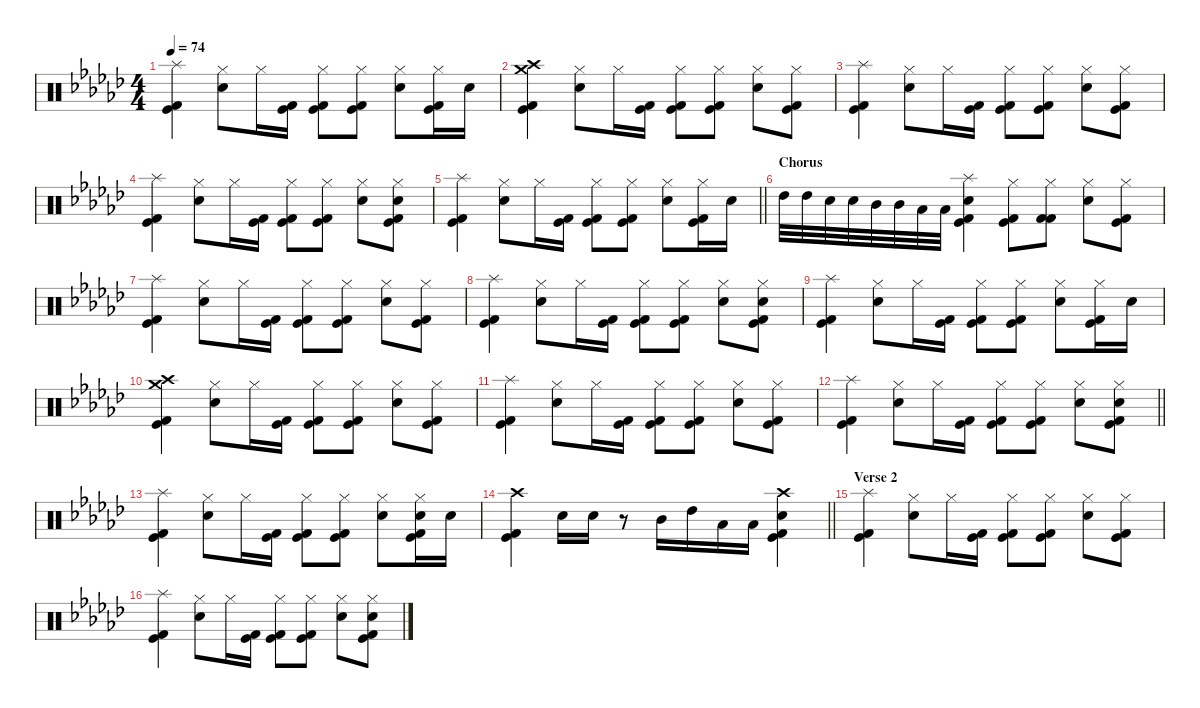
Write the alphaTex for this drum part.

\defaultSystemsLayout 4
\hideDynamics
\bracketExtendMode nobrackets
\singleTrackTrackNamePolicy hidden
\multiTrackTrackNamePolicy hidden
\firstSystemTrackNameMode fullname
\firstSystemTrackNameOrientation horizontal
\otherSystemsTrackNameOrientation horizontal
\track ("Drums, Ulrich" "drm.") {defaultSystemsLayout 4 instrument percussion}
\staff {score}
\articulation defaults
\ts (4 4)
\tempo 74
\clef neutral
\ks ebminor
("Splash (hit)"{acc forcenatural} "Kick (hit) 2"{acc forcenatural} "Kick (hit)"{acc forcenatural}).4{dy f beam Down} ("Hi-Hat (closed)"{acc forcenatural} "Snare (hit) 2"{acc forcenatural}).8{beam Down} "Hi-Hat (closed)"{acc forcenatural}.16{beam Down} ("Kick (hit) 2"{acc forcenatural} "Kick (hit)"{acc forcenatural}).16{beam Down} ("Hi-Hat (closed)"{acc forcenatural} "Kick (hit) 2"{acc forcenatural} "Kick (hit)"{acc forcenatural}).8{beam Down} ("Hi-Hat (closed)"{acc forcenatural} "Kick (hit)"{acc forcenatural} "Kick (hit) 2"{acc forcenatural}).8{beam Down} ("Hi-Hat (closed)"{acc forcenatural} "Snare (hit) 2"{acc forcenatural}).8{beam Down} ("Hi-Hat (closed)"{acc forcenatural} "Kick (hit) 2"{acc forcenatural} "Kick (hit)"{acc forcenatural}).16{beam Down} "Snare (hit) 2"{acc forcenatural}.16{beam Down} |
("Crash medium (hit)"{acc forcenatural} "Crash high (hit)"{acc forcenatural} "Kick (hit) 2"{acc forcenatural} "Kick (hit)"{acc forcenatural}).4{beam Down} ("Hi-Hat (closed)"{acc forcenatural} "Snare (hit) 2"{acc forcenatural}).8{beam Down} "Hi-Hat (closed)"{acc forcenatural}.16{beam Down} ("Kick (hit) 2"{acc forcenatural} "Kick (hit)"{acc forcenatural}).16{beam Down} ("Hi-Hat (closed)"{acc forcenatural} "Kick (hit) 2"{acc forcenatural} "Kick (hit)"{acc forcenatural}).8{beam Down} ("Hi-Hat (closed)"{acc forcenatural} "Kick (hit)"{acc forcenatural} "Kick (hit) 2"{acc forcenatural}).8{beam Down} ("Hi-Hat (closed)"{acc forcenatural} "Snare (hit) 2"{acc forcenatural}).8{beam Down} ("Hi-Hat (closed)"{acc forcenatural} "Kick (hit) 2"{acc forcenatural} "Kick (hit)"{acc forcenatural}).8{beam Down} |
("Splash (hit)"{acc forcenatural} "Kick (hit) 2"{acc forcenatural} "Kick (hit)"{acc forcenatural}).4{beam Down} ("Hi-Hat (closed)"{acc forcenatural} "Snare (hit) 2"{acc forcenatural}).8{beam Down} "Hi-Hat (closed)"{acc forcenatural}.16{beam Down} ("Kick (hit) 2"{acc forcenatural} "Kick (hit)"{acc forcenatural}).16{beam Down} ("Hi-Hat (closed)"{acc forcenatural} "Kick (hit) 2"{acc forcenatural} "Kick (hit)"{acc forcenatural}).8{beam Down} ("Hi-Hat (closed)"{acc forcenatural} "Kick (hit)"{acc forcenatural} "Kick (hit) 2"{acc forcenatural}).8{beam Down} ("Hi-Hat (closed)"{acc forcenatural} "Snare (hit) 2"{acc forcenatural}).8{beam Down} ("Hi-Hat (closed)"{acc forcenatural} "Kick (hit) 2"{acc forcenatural} "Kick (hit)"{acc forcenatural}).8{beam Down} |
("Splash (hit)"{acc forcenatural} "Kick (hit) 2"{acc forcenatural} "Kick (hit)"{acc forcenatural}).4{beam Down} ("Hi-Hat (closed)"{acc forcenatural} "Snare (hit) 2"{acc forcenatural}).8{beam Down} "Hi-Hat (closed)"{acc forcenatural}.16{beam Down} ("Kick (hit) 2"{acc forcenatural} "Kick (hit)"{acc forcenatural}).16{beam Down} ("Hi-Hat (closed)"{acc forcenatural} "Kick (hit) 2"{acc forcenatural} "Kick (hit)"{acc forcenatural}).8{beam Down} ("Hi-Hat (closed)"{acc forcenatural} "Kick (hit)"{acc forcenatural} "Kick (hit) 2"{acc forcenatural}).8{beam Down} ("Hi-Hat (closed)"{acc forcenatural} "Snare (hit) 2"{acc forcenatural}).8{beam Down} ("Hi-Hat (closed)"{acc forcenatural} "Snare (hit) 2"{acc forcenatural} "Kick (hit) 2"{acc forcenatural} "Kick (hit)"{acc forcenatural}).8{beam Down} |
\barLineRight lightlight
("Splash (hit)"{acc forcenatural} "Kick (hit) 2"{acc forcenatural} "Kick (hit)"{acc forcenatural}).4{beam Down} ("Hi-Hat (closed)"{acc forcenatural} "Snare (hit) 2"{acc forcenatural}).8{beam Down} "Hi-Hat (closed)"{acc forcenatural}.16{beam Down} ("Kick (hit) 2"{acc forcenatural} "Kick (hit)"{acc forcenatural}).16{beam Down} ("Hi-Hat (closed)"{acc forcenatural} "Kick (hit) 2"{acc forcenatural} "Kick (hit)"{acc forcenatural}).8{beam Down} ("Hi-Hat (closed)"{acc forcenatural} "Kick (hit)"{acc forcenatural} "Kick (hit) 2"{acc forcenatural}).8{beam Down} ("Hi-Hat (closed)"{acc forcenatural} "Snare (hit) 2"{acc forcenatural}).8{beam Down} ("Hi-Hat (closed)"{acc forcenatural} "Kick (hit) 2"{acc forcenatural} "Kick (hit)"{acc forcenatural}).16{beam Down} "Snare (hit) 2"{acc forcenatural}.16{beam Down} |
\section ("" "Chorus")
"High Tom (hit)"{acc forcenatural}.32{beam Down} "High Tom (hit)"{acc forcenatural}.32{beam Down} "Snare (hit) 2"{acc forcenatural}.32{beam Down} "Snare (hit) 2"{acc forcenatural}.32{beam Down} "Mid Tom (hit)"{acc forcenatural}.32{beam Down} "Mid Tom (hit)"{acc forcenatural}.32{beam Down} "Low Floor Tom (hit)"{acc forcenatural}.32{beam Down} "Low Floor Tom (hit)"{acc forcenatural}.32{beam Down} ("Splash (hit)"{acc forcenatural} "Snare (hit) 2"{acc forcenatural} "Kick (hit) 2"{acc forcenatural} "Kick (hit)"{acc forcenatural}).4{beam Down} ("Hi-Hat (closed)"{acc forcenatural} "Kick (hit) 2"{acc forcenatural} "Kick (hit)"{acc forcenatural}).8{beam Down} ("Hi-Hat (closed)"{acc forcenatural} "Kick (hit) 2"{acc forcenatural} "Kick (hit) 2"{acc forcenatural}).8{beam Down} ("Hi-Hat (closed)"{acc forcenatural} "Snare (hit) 2"{acc forcenatural}).8{beam Down} ("Hi-Hat (closed)"{acc forcenatural} "Kick (hit) 2"{acc forcenatural} "Kick (hit)"{acc forcenatural}).8{beam Down} |
("Splash (hit)"{acc forcenatural} "Kick (hit) 2"{acc forcenatural} "Kick (hit)"{acc forcenatural}).4{beam Down} ("Hi-Hat (closed)"{acc forcenatural} "Snare (hit) 2"{acc forcenatural}).8{beam Down} "Hi-Hat (closed)"{acc forcenatural}.16{beam Down} ("Kick (hit) 2"{acc forcenatural} "Kick (hit)"{acc forcenatural}).16{beam Down} ("Hi-Hat (closed)"{acc forcenatural} "Kick (hit) 2"{acc forcenatural} "Kick (hit)"{acc forcenatural}).8{beam Down} ("Hi-Hat (closed)"{acc forcenatural} "Kick (hit)"{acc forcenatural} "Kick (hit) 2"{acc forcenatural}).8{beam Down} ("Hi-Hat (closed)"{acc forcenatural} "Snare (hit) 2"{acc forcenatural}).8{beam Down} ("Hi-Hat (closed)"{acc forcenatural} "Kick (hit) 2"{acc forcenatural} "Kick (hit)"{acc forcenatural}).8{beam Down} |
("Splash (hit)"{acc forcenatural} "Kick (hit) 2"{acc forcenatural} "Kick (hit)"{acc forcenatural}).4{beam Down} ("Hi-Hat (closed)"{acc forcenatural} "Snare (hit) 2"{acc forcenatural}).8{beam Down} "Hi-Hat (closed)"{acc forcenatural}.16{beam Down} ("Kick (hit) 2"{acc forcenatural} "Kick (hit)"{acc forcenatural}).16{beam Down} ("Hi-Hat (closed)"{acc forcenatural} "Kick (hit) 2"{acc forcenatural} "Kick (hit)"{acc forcenatural}).8{beam Down} ("Hi-Hat (closed)"{acc forcenatural} "Kick (hit)"{acc forcenatural} "Kick (hit) 2"{acc forcenatural}).8{beam Down} ("Hi-Hat (closed)"{acc forcenatural} "Snare (hit) 2"{acc forcenatural}).8{beam Down} ("Hi-Hat (closed)"{acc forcenatural} "Snare (hit) 2"{acc forcenatural} "Kick (hit) 2"{acc forcenatural} "Kick (hit)"{acc forcenatural}).8{beam Down} |
("Splash (hit)"{acc forcenatural} "Kick (hit) 2"{acc forcenatural} "Kick (hit)"{acc forcenatural}).4{beam Down} ("Hi-Hat (closed)"{acc forcenatural} "Snare (hit) 2"{acc forcenatural}).8{beam Down} "Hi-Hat (closed)"{acc forcenatural}.16{beam Down} ("Kick (hit) 2"{acc forcenatural} "Kick (hit)"{acc forcenatural}).16{beam Down} ("Hi-Hat (closed)"{acc forcenatural} "Kick (hit) 2"{acc forcenatural} "Kick (hit)"{acc forcenatural}).8{beam Down} ("Hi-Hat (closed)"{acc forcenatural} "Kick (hit)"{acc forcenatural} "Kick (hit) 2"{acc forcenatural}).8{beam Down} ("Hi-Hat (closed)"{acc forcenatural} "Snare (hit) 2"{acc forcenatural}).8{beam Down} ("Hi-Hat (closed)"{acc forcenatural} "Kick (hit) 2"{acc forcenatural} "Kick (hit)"{acc forcenatural}).16{beam Down} "Snare (hit) 2"{acc forcenatural}.16{beam Down} |
("Crash medium (hit)"{acc forcenatural} "Crash high (hit)"{acc forcenatural} "Kick (hit) 2"{acc forcenatural} "Kick (hit)"{acc forcenatural}).4{beam Down} ("Hi-Hat (closed)"{acc forcenatural} "Snare (hit) 2"{acc forcenatural}).8{beam Down} "Hi-Hat (closed)"{acc forcenatural}.16{beam Down} ("Kick (hit) 2"{acc forcenatural} "Kick (hit)"{acc forcenatural}).16{beam Down} ("Hi-Hat (closed)"{acc forcenatural} "Kick (hit) 2"{acc forcenatural} "Kick (hit)"{acc forcenatural}).8{beam Down} ("Hi-Hat (closed)"{acc forcenatural} "Kick (hit)"{acc forcenatural} "Kick (hit) 2"{acc forcenatural}).8{beam Down} ("Hi-Hat (closed)"{acc forcenatural} "Snare (hit) 2"{acc forcenatural}).8{beam Down} ("Hi-Hat (closed)"{acc forcenatural} "Kick (hit) 2"{acc forcenatural} "Kick (hit)"{acc forcenatural}).8{beam Down} |
("Splash (hit)"{acc forcenatural} "Kick (hit) 2"{acc forcenatural} "Kick (hit)"{acc forcenatural}).4{beam Down} ("Hi-Hat (closed)"{acc forcenatural} "Snare (hit) 2"{acc forcenatural}).8{beam Down} "Hi-Hat (closed)"{acc forcenatural}.16{beam Down} ("Kick (hit) 2"{acc forcenatural} "Kick (hit)"{acc forcenatural}).16{beam Down} ("Hi-Hat (closed)"{acc forcenatural} "Kick (hit) 2"{acc forcenatural} "Kick (hit)"{acc forcenatural}).8{beam Down} ("Hi-Hat (closed)"{acc forcenatural} "Kick (hit)"{acc forcenatural} "Kick (hit) 2"{acc forcenatural}).8{beam Down} ("Hi-Hat (closed)"{acc forcenatural} "Snare (hit) 2"{acc forcenatural}).8{beam Down} ("Hi-Hat (closed)"{acc forcenatural} "Kick (hit) 2"{acc forcenatural} "Kick (hit)"{acc forcenatural}).8{beam Down} |
\barLineRight lightlight
("Splash (hit)"{acc forcenatural} "Kick (hit) 2"{acc forcenatural} "Kick (hit)"{acc forcenatural}).4{beam Down} ("Hi-Hat (closed)"{acc forcenatural} "Snare (hit) 2"{acc forcenatural}).8{beam Down} "Hi-Hat (closed)"{acc forcenatural}.16{beam Down} ("Kick (hit) 2"{acc forcenatural} "Kick (hit)"{acc forcenatural}).16{beam Down} ("Hi-Hat (closed)"{acc forcenatural} "Kick (hit) 2"{acc forcenatural} "Kick (hit)"{acc forcenatural}).8{beam Down} ("Hi-Hat (closed)"{acc forcenatural} "Kick (hit)"{acc forcenatural} "Kick (hit) 2"{acc forcenatural}).8{beam Down} ("Hi-Hat (closed)"{acc forcenatural} "Snare (hit) 2"{acc forcenatural}).8{beam Down} ("Hi-Hat (closed)"{acc forcenatural} "Snare (hit) 2"{acc forcenatural} "Kick (hit) 2"{acc forcenatural} "Kick (hit)"{acc forcenatural}).8{beam Down} |
("Splash (hit)"{acc forcenatural} "Kick (hit) 2"{acc forcenatural} "Kick (hit)"{acc forcenatural}).4{beam Down} ("Hi-Hat (closed)"{acc forcenatural} "Snare (hit) 2"{acc forcenatural}).8{beam Down} "Hi-Hat (closed)"{acc forcenatural}.16{beam Down} ("Kick (hit) 2"{acc forcenatural} "Kick (hit)"{acc forcenatural}).16{beam Down} ("Hi-Hat (closed)"{acc forcenatural} "Kick (hit) 2"{acc forcenatural} "Kick (hit)"{acc forcenatural}).8{beam Down} ("Hi-Hat (closed)"{acc forcenatural} "Kick (hit)"{acc forcenatural} "Kick (hit) 2"{acc forcenatural}).8{beam Down} ("Hi-Hat (closed)"{acc forcenatural} "Snare (hit) 2"{acc forcenatural}).8{beam Down} ("Hi-Hat (closed)"{acc forcenatural} "Snare (hit) 2"{acc forcenatural} "Kick (hit) 2"{acc forcenatural} "Kick (hit)"{acc forcenatural}).16{beam Down} "Snare (hit) 2"{acc forcenatural}.16{beam Down} |
\barLineRight lightlight
("Crash high (hit)"{acc forcenatural} "Kick (hit) 2"{acc forcenatural} "Kick (hit)"{acc forcenatural}).4{beam Down} "Snare (hit) 2"{acc forcenatural}.16{beam Down} "Snare (hit) 2"{acc forcenatural}.16{beam Down} r.8{beam Down} "Mid Tom (hit)"{acc forcenatural}.16{beam Down} "High Tom (hit)"{acc forcenatural}.16{beam Down} "Low Floor Tom (hit)"{acc forcenatural}.16{beam Down} "Low Floor Tom (hit)"{acc forcenatural}.16{beam Down} ("Crash high (hit)"{acc forcenatural} "Kick (hit) 2"{acc forcenatural} "Kick (hit)"{acc forcenatural} "Snare (hit) 2"{acc forcenatural}).4{beam Down} |
\section ("" "Verse 2")
("Splash (hit)"{acc forcenatural} "Kick (hit) 2"{acc forcenatural} "Kick (hit)"{acc forcenatural}).4{beam Down} ("Hi-Hat (closed)"{acc forcenatural} "Snare (hit) 2"{acc forcenatural}).8{beam Down} "Hi-Hat (closed)"{acc forcenatural}.16{beam Down} ("Kick (hit) 2"{acc forcenatural} "Kick (hit)"{acc forcenatural}).16{beam Down} ("Hi-Hat (closed)"{acc forcenatural} "Kick (hit) 2"{acc forcenatural} "Kick (hit)"{acc forcenatural}).8{beam Down} ("Hi-Hat (closed)"{acc forcenatural} "Kick (hit)"{acc forcenatural} "Kick (hit) 2"{acc forcenatural}).8{beam Down} ("Hi-Hat (closed)"{acc forcenatural} "Snare (hit) 2"{acc forcenatural}).8{beam Down} ("Hi-Hat (closed)"{acc forcenatural} "Kick (hit) 2"{acc forcenatural} "Kick (hit)"{acc forcenatural}).8{beam Down} |
("Splash (hit)"{acc forcenatural} "Kick (hit) 2"{acc forcenatural} "Kick (hit)"{acc forcenatural}).4{beam Down} ("Hi-Hat (closed)"{acc forcenatural} "Snare (hit) 2"{acc forcenatural}).8{beam Down} "Hi-Hat (closed)"{acc forcenatural}.16{beam Down} ("Kick (hit) 2"{acc forcenatural} "Kick (hit)"{acc forcenatural}).16{beam Down} ("Hi-Hat (closed)"{acc forcenatural} "Kick (hit) 2"{acc forcenatural} "Kick (hit)"{acc forcenatural}).8{beam Down} ("Hi-Hat (closed)"{acc forcenatural} "Kick (hit)"{acc forcenatural} "Kick (hit) 2"{acc forcenatural}).8{beam Down} ("Hi-Hat (closed)"{acc forcenatural} "Snare (hit) 2"{acc forcenatural}).8{beam Down} ("Hi-Hat (closed)"{acc forcenatural} "Snare (hit) 2"{acc forcenatural} "Kick (hit) 2"{acc forcenatural} "Kick (hit)"{acc forcenatural}).8{beam Down}
